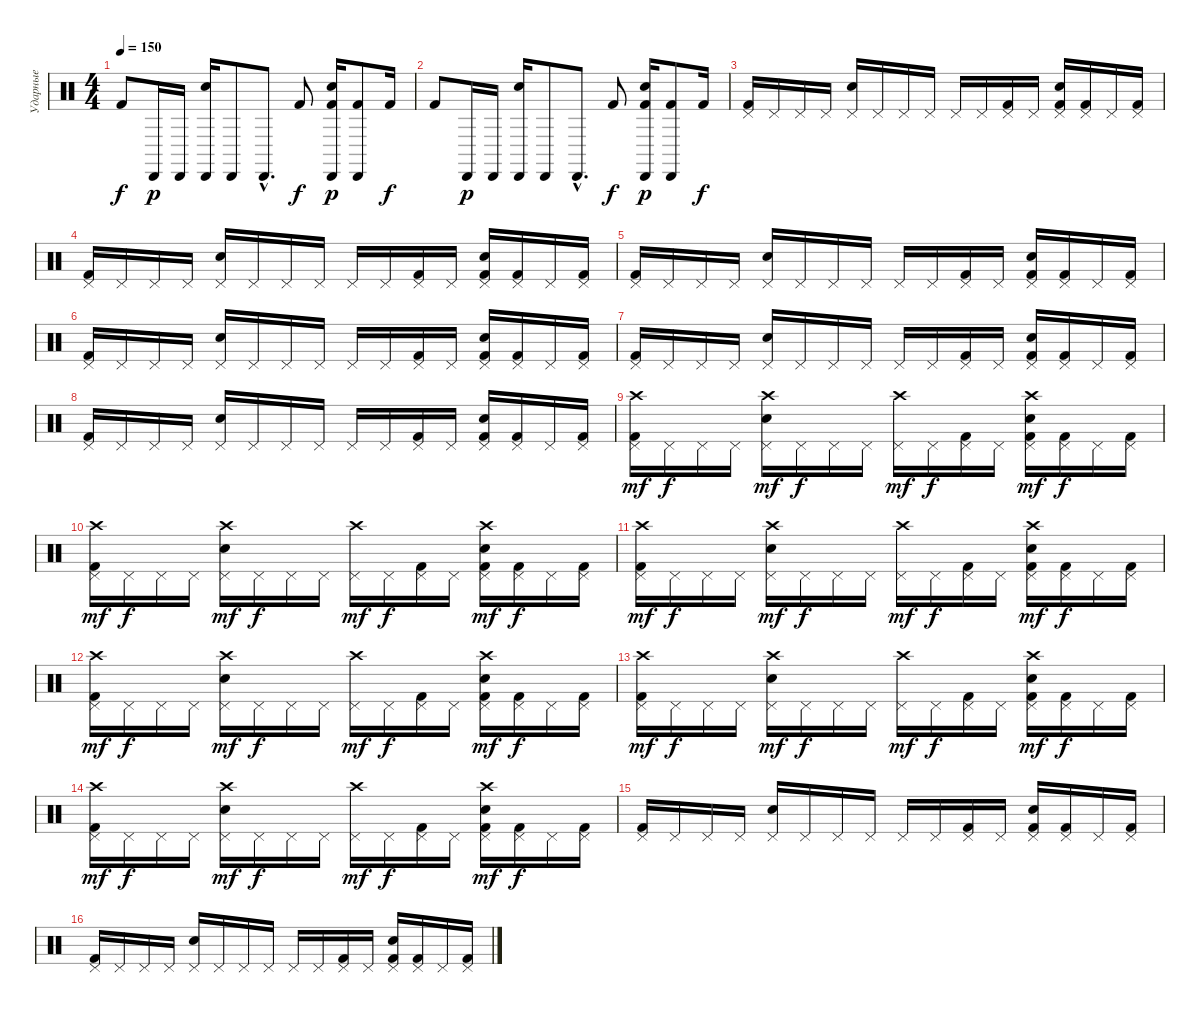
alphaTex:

\track ("Ударные" "Ударные") {instrument percussion}
\staff {score}
\articulation defaults
\ts (4 4)
\tempo 150
\clef neutral
\ks c "Kick (hit) 2".8{dy f} "Cabasa (hit)".16{dy p} "Cabasa (hit)".16
("Cabasa (hit)" "Electric Snare (hit)").16 "Cabasa (hit)".8 "Cabasa (hit)"{hac}.8{d} "Kick (hit) 2".8{dy f} ("Cabasa (hit)" "Electric Snare (hit)" "Kick (hit) 2").16{dy p} ("Cabasa (hit)" "Kick (hit) 2").8 "Kick (hit) 2".16{dy f} |
"Kick (hit) 2".8 "Cabasa (hit)".16{dy p} "Cabasa (hit)".16 ("Cabasa (hit)" "Electric Snare (hit)").16 "Cabasa (hit)".8 "Cabasa (hit)"{hac}.8{d} "Kick (hit) 2".8{dy f} ("Cabasa (hit)" "Electric Snare (hit)" "Kick (hit) 2").16{dy p} ("Cabasa (hit)" "Kick (hit) 2").8 "Kick (hit) 2".16{dy f} |
("Pedal Hi-Hat (hit)" "Kick (hit) 2").16 "Pedal Hi-Hat (hit)".16 "Pedal Hi-Hat (hit)".16 "Pedal Hi-Hat (hit)".16 ("Pedal Hi-Hat (hit)" "Electric Snare (hit)").16 "Pedal Hi-Hat (hit)".16 "Pedal Hi-Hat (hit)".16 "Pedal Hi-Hat (hit)".16 "Pedal Hi-Hat (hit)".16 "Pedal Hi-Hat (hit)".16 ("Pedal Hi-Hat (hit)" "Kick (hit) 2").16 "Pedal Hi-Hat (hit)".16 ("Pedal Hi-Hat (hit)" "Electric Snare (hit)" "Kick (hit) 2").16 ("Pedal Hi-Hat (hit)" "Kick (hit) 2").16 "Pedal Hi-Hat (hit)".16 ("Pedal Hi-Hat (hit)" "Kick (hit) 2").16 |
("Pedal Hi-Hat (hit)" "Kick (hit) 2").16 "Pedal Hi-Hat (hit)".16 "Pedal Hi-Hat (hit)".16 "Pedal Hi-Hat (hit)".16 ("Pedal Hi-Hat (hit)" "Electric Snare (hit)").16 "Pedal Hi-Hat (hit)".16 "Pedal Hi-Hat (hit)".16 "Pedal Hi-Hat (hit)".16 "Pedal Hi-Hat (hit)".16 "Pedal Hi-Hat (hit)".16 ("Pedal Hi-Hat (hit)" "Kick (hit) 2").16 "Pedal Hi-Hat (hit)".16 ("Pedal Hi-Hat (hit)" "Electric Snare (hit)" "Kick (hit) 2").16 ("Pedal Hi-Hat (hit)" "Kick (hit) 2").16 "Pedal Hi-Hat (hit)".16 ("Pedal Hi-Hat (hit)" "Kick (hit) 2").16 |
("Pedal Hi-Hat (hit)" "Kick (hit) 2").16 "Pedal Hi-Hat (hit)".16 "Pedal Hi-Hat (hit)".16 "Pedal Hi-Hat (hit)".16 ("Pedal Hi-Hat (hit)" "Electric Snare (hit)").16 "Pedal Hi-Hat (hit)".16 "Pedal Hi-Hat (hit)".16 "Pedal Hi-Hat (hit)".16 "Pedal Hi-Hat (hit)".16 "Pedal Hi-Hat (hit)".16 ("Pedal Hi-Hat (hit)" "Kick (hit) 2").16 "Pedal Hi-Hat (hit)".16 ("Pedal Hi-Hat (hit)" "Electric Snare (hit)" "Kick (hit) 2").16 ("Pedal Hi-Hat (hit)" "Kick (hit) 2").16 "Pedal Hi-Hat (hit)".16 ("Pedal Hi-Hat (hit)" "Kick (hit) 2").16 |
("Pedal Hi-Hat (hit)" "Kick (hit) 2").16 "Pedal Hi-Hat (hit)".16 "Pedal Hi-Hat (hit)".16 "Pedal Hi-Hat (hit)".16 ("Pedal Hi-Hat (hit)" "Electric Snare (hit)").16 "Pedal Hi-Hat (hit)".16 "Pedal Hi-Hat (hit)".16 "Pedal Hi-Hat (hit)".16 "Pedal Hi-Hat (hit)".16 "Pedal Hi-Hat (hit)".16 ("Pedal Hi-Hat (hit)" "Kick (hit) 2").16 "Pedal Hi-Hat (hit)".16 ("Pedal Hi-Hat (hit)" "Electric Snare (hit)" "Kick (hit) 2").16 ("Pedal Hi-Hat (hit)" "Kick (hit) 2").16 "Pedal Hi-Hat (hit)".16 ("Pedal Hi-Hat (hit)" "Kick (hit) 2").16 |
("Pedal Hi-Hat (hit)" "Kick (hit) 2").16 "Pedal Hi-Hat (hit)".16 "Pedal Hi-Hat (hit)".16 "Pedal Hi-Hat (hit)".16 ("Pedal Hi-Hat (hit)" "Electric Snare (hit)").16 "Pedal Hi-Hat (hit)".16 "Pedal Hi-Hat (hit)".16 "Pedal Hi-Hat (hit)".16 "Pedal Hi-Hat (hit)".16 "Pedal Hi-Hat (hit)".16 ("Pedal Hi-Hat (hit)" "Kick (hit) 2").16 "Pedal Hi-Hat (hit)".16 ("Pedal Hi-Hat (hit)" "Electric Snare (hit)" "Kick (hit) 2").16 ("Pedal Hi-Hat (hit)" "Kick (hit) 2").16 "Pedal Hi-Hat (hit)".16 ("Pedal Hi-Hat (hit)" "Kick (hit) 2").16 |
("Pedal Hi-Hat (hit)" "Kick (hit) 2").16 "Pedal Hi-Hat (hit)".16 "Pedal Hi-Hat (hit)".16 "Pedal Hi-Hat (hit)".16 ("Pedal Hi-Hat (hit)" "Electric Snare (hit)").16 "Pedal Hi-Hat (hit)".16 "Pedal Hi-Hat (hit)".16 "Pedal Hi-Hat (hit)".16 "Pedal Hi-Hat (hit)".16 "Pedal Hi-Hat (hit)".16 ("Pedal Hi-Hat (hit)" "Kick (hit) 2").16 "Pedal Hi-Hat (hit)".16 ("Pedal Hi-Hat (hit)" "Electric Snare (hit)" "Kick (hit) 2").16 ("Pedal Hi-Hat (hit)" "Kick (hit) 2").16 "Pedal Hi-Hat (hit)".16 ("Pedal Hi-Hat (hit)" "Kick (hit) 2").16 |
("Crash high (hit)" "Pedal Hi-Hat (hit)" "Kick (hit) 2").16{dy mf} "Pedal Hi-Hat (hit)".16{dy f} "Pedal Hi-Hat (hit)".16 "Pedal Hi-Hat (hit)".16 ("Crash high (hit)" "Pedal Hi-Hat (hit)" "Electric Snare (hit)").16{dy mf} "Pedal Hi-Hat (hit)".16{dy f} "Pedal Hi-Hat (hit)".16 "Pedal Hi-Hat (hit)".16 ("Crash high (hit)" "Pedal Hi-Hat (hit)").16{dy mf} "Pedal Hi-Hat (hit)".16{dy f} ("Pedal Hi-Hat (hit)" "Kick (hit) 2").16 "Pedal Hi-Hat (hit)".16 ("Crash high (hit)" "Pedal Hi-Hat (hit)" "Electric Snare (hit)" "Kick (hit) 2").16{dy mf} ("Pedal Hi-Hat (hit)" "Kick (hit) 2").16{dy f} "Pedal Hi-Hat (hit)".16 ("Pedal Hi-Hat (hit)" "Kick (hit) 2").16 |
("Pedal Hi-Hat (hit)" "Kick (hit) 2" "Crash high (hit)").16{dy mf} "Pedal Hi-Hat (hit)".16{dy f} "Pedal Hi-Hat (hit)".16 "Pedal Hi-Hat (hit)".16 ("Pedal Hi-Hat (hit)" "Electric Snare (hit)" "Crash high (hit)").16{dy mf} "Pedal Hi-Hat (hit)".16{dy f} "Pedal Hi-Hat (hit)".16 "Pedal Hi-Hat (hit)".16 ("Pedal Hi-Hat (hit)" "Crash high (hit)").16{dy mf} "Pedal Hi-Hat (hit)".16{dy f} ("Pedal Hi-Hat (hit)" "Kick (hit) 2").16 "Pedal Hi-Hat (hit)".16 ("Pedal Hi-Hat (hit)" "Electric Snare (hit)" "Kick (hit) 2" "Crash high (hit)").16{dy mf} ("Pedal Hi-Hat (hit)" "Kick (hit) 2").16{dy f} "Pedal Hi-Hat (hit)".16 ("Pedal Hi-Hat (hit)" "Kick (hit) 2").16 |
("Crash high (hit)" "Pedal Hi-Hat (hit)" "Kick (hit) 2").16{dy mf} "Pedal Hi-Hat (hit)".16{dy f} "Pedal Hi-Hat (hit)".16 "Pedal Hi-Hat (hit)".16 ("Crash high (hit)" "Pedal Hi-Hat (hit)" "Electric Snare (hit)").16{dy mf} "Pedal Hi-Hat (hit)".16{dy f} "Pedal Hi-Hat (hit)".16 "Pedal Hi-Hat (hit)".16 ("Crash high (hit)" "Pedal Hi-Hat (hit)").16{dy mf} "Pedal Hi-Hat (hit)".16{dy f} ("Pedal Hi-Hat (hit)" "Kick (hit) 2").16 "Pedal Hi-Hat (hit)".16 ("Crash high (hit)" "Pedal Hi-Hat (hit)" "Electric Snare (hit)" "Kick (hit) 2").16{dy mf} ("Pedal Hi-Hat (hit)" "Kick (hit) 2").16{dy f} "Pedal Hi-Hat (hit)".16 ("Pedal Hi-Hat (hit)" "Kick (hit) 2").16 |
("Pedal Hi-Hat (hit)" "Kick (hit) 2" "Crash high (hit)").16{dy mf} "Pedal Hi-Hat (hit)".16{dy f} "Pedal Hi-Hat (hit)".16 "Pedal Hi-Hat (hit)".16 ("Pedal Hi-Hat (hit)" "Electric Snare (hit)" "Crash high (hit)").16{dy mf} "Pedal Hi-Hat (hit)".16{dy f} "Pedal Hi-Hat (hit)".16 "Pedal Hi-Hat (hit)".16 ("Pedal Hi-Hat (hit)" "Crash high (hit)").16{dy mf} "Pedal Hi-Hat (hit)".16{dy f} ("Pedal Hi-Hat (hit)" "Kick (hit) 2").16 "Pedal Hi-Hat (hit)".16 ("Pedal Hi-Hat (hit)" "Electric Snare (hit)" "Kick (hit) 2" "Crash high (hit)").16{dy mf} ("Pedal Hi-Hat (hit)" "Kick (hit) 2").16{dy f} "Pedal Hi-Hat (hit)".16 ("Pedal Hi-Hat (hit)" "Kick (hit) 2").16 |
("Pedal Hi-Hat (hit)" "Kick (hit) 2" "Crash high (hit)").16{dy mf} "Pedal Hi-Hat (hit)".16{dy f} "Pedal Hi-Hat (hit)".16 "Pedal Hi-Hat (hit)".16 ("Pedal Hi-Hat (hit)" "Electric Snare (hit)" "Crash high (hit)").16{dy mf} "Pedal Hi-Hat (hit)".16{dy f} "Pedal Hi-Hat (hit)".16 "Pedal Hi-Hat (hit)".16 ("Pedal Hi-Hat (hit)" "Crash high (hit)").16{dy mf} "Pedal Hi-Hat (hit)".16{dy f} ("Pedal Hi-Hat (hit)" "Kick (hit) 2").16 "Pedal Hi-Hat (hit)".16 ("Pedal Hi-Hat (hit)" "Electric Snare (hit)" "Kick (hit) 2" "Crash high (hit)").16{dy mf} ("Pedal Hi-Hat (hit)" "Kick (hit) 2").16{dy f} "Pedal Hi-Hat (hit)".16 ("Pedal Hi-Hat (hit)" "Kick (hit) 2").16 |
("Crash high (hit)" "Pedal Hi-Hat (hit)" "Kick (hit) 2").16{dy mf} "Pedal Hi-Hat (hit)".16{dy f} "Pedal Hi-Hat (hit)".16 "Pedal Hi-Hat (hit)".16 ("Crash high (hit)" "Pedal Hi-Hat (hit)" "Electric Snare (hit)").16{dy mf} "Pedal Hi-Hat (hit)".16{dy f} "Pedal Hi-Hat (hit)".16 "Pedal Hi-Hat (hit)".16 ("Crash high (hit)" "Pedal Hi-Hat (hit)").16{dy mf} "Pedal Hi-Hat (hit)".16{dy f} ("Pedal Hi-Hat (hit)" "Kick (hit) 2").16 "Pedal Hi-Hat (hit)".16 ("Crash high (hit)" "Pedal Hi-Hat (hit)" "Electric Snare (hit)" "Kick (hit) 2").16{dy mf} ("Pedal Hi-Hat (hit)" "Kick (hit) 2").16{dy f} "Pedal Hi-Hat (hit)".16 ("Pedal Hi-Hat (hit)" "Kick (hit) 2").16 |
("Pedal Hi-Hat (hit)" "Kick (hit) 2").16 "Pedal Hi-Hat (hit)".16 "Pedal Hi-Hat (hit)".16 "Pedal Hi-Hat (hit)".16 ("Pedal Hi-Hat (hit)" "Electric Snare (hit)").16 "Pedal Hi-Hat (hit)".16 "Pedal Hi-Hat (hit)".16 "Pedal Hi-Hat (hit)".16 "Pedal Hi-Hat (hit)".16 "Pedal Hi-Hat (hit)".16 ("Pedal Hi-Hat (hit)" "Kick (hit) 2").16 "Pedal Hi-Hat (hit)".16 ("Pedal Hi-Hat (hit)" "Electric Snare (hit)" "Kick (hit) 2").16 ("Pedal Hi-Hat (hit)" "Kick (hit) 2").16 "Pedal Hi-Hat (hit)".16 ("Pedal Hi-Hat (hit)" "Kick (hit) 2").16 |
("Pedal Hi-Hat (hit)" "Kick (hit) 2").16 "Pedal Hi-Hat (hit)".16 "Pedal Hi-Hat (hit)".16 "Pedal Hi-Hat (hit)".16 ("Pedal Hi-Hat (hit)" "Electric Snare (hit)").16 "Pedal Hi-Hat (hit)".16 "Pedal Hi-Hat (hit)".16 "Pedal Hi-Hat (hit)".16 "Pedal Hi-Hat (hit)".16 "Pedal Hi-Hat (hit)".16 ("Pedal Hi-Hat (hit)" "Kick (hit) 2").16 "Pedal Hi-Hat (hit)".16 ("Pedal Hi-Hat (hit)" "Electric Snare (hit)" "Kick (hit) 2").16 ("Pedal Hi-Hat (hit)" "Kick (hit) 2").16 "Pedal Hi-Hat (hit)".16 ("Pedal Hi-Hat (hit)" "Kick (hit) 2").16
